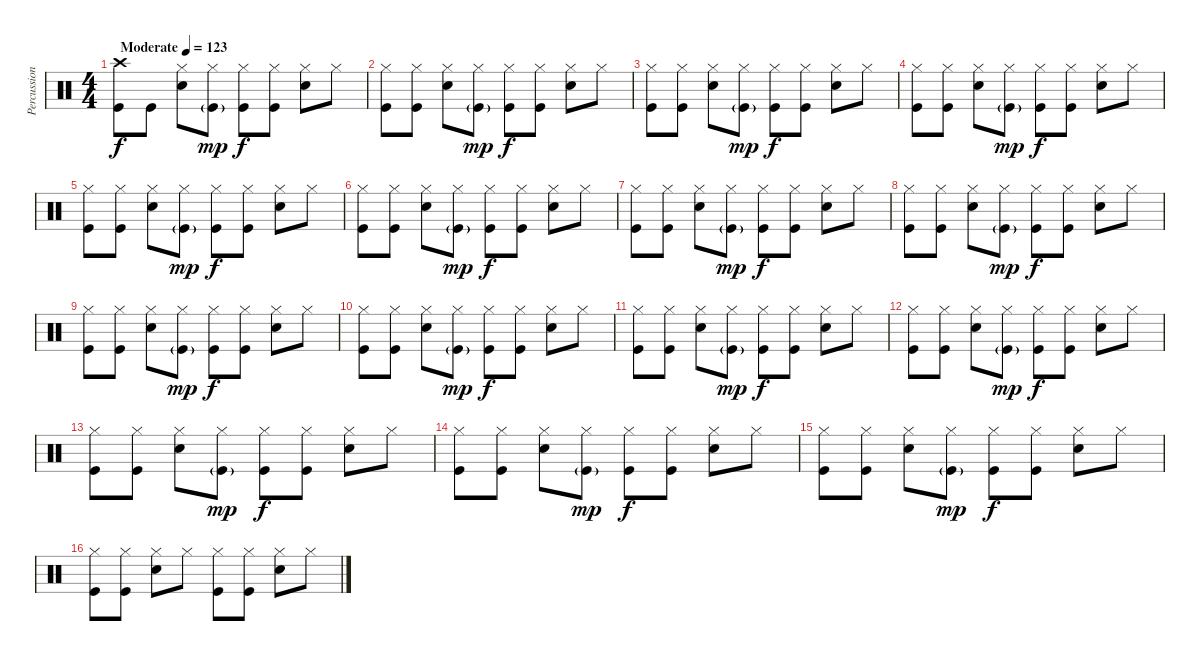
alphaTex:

\track ("Percussion" "Percussion") {instrument percussion}
\staff {score}
\articulation defaults
\ts (4 4)
\tempo (123 "Moderate")
\clef neutral
\ks c
("Crash high (hit)" "Kick (hit)").8{dy f} "Kick (hit)".8 ("Hi-Hat (closed)" "Snare (hit) 2").8 ("Hi-Hat (closed)" "Kick (hit)"{g}).8{dy mp} ("Hi-Hat (closed)" "Kick (hit)").8{dy f} ("Hi-Hat (closed)" "Kick (hit)").8 ("Hi-Hat (closed)" "Snare (hit) 2").8 "Hi-Hat (closed)".8 |
("Hi-Hat (closed)" "Kick (hit)").8 ("Hi-Hat (closed)" "Kick (hit)").8 ("Hi-Hat (closed)" "Snare (hit) 2").8 ("Hi-Hat (closed)" "Kick (hit)"{g}).8{dy mp} ("Hi-Hat (closed)" "Kick (hit)").8{dy f} ("Hi-Hat (closed)" "Kick (hit)").8 ("Hi-Hat (closed)" "Snare (hit) 2").8 "Hi-Hat (closed)".8 |
("Hi-Hat (closed)" "Kick (hit)").8 ("Hi-Hat (closed)" "Kick (hit)").8 ("Hi-Hat (closed)" "Snare (hit) 2").8 ("Hi-Hat (closed)" "Kick (hit)"{g}).8{dy mp} ("Hi-Hat (closed)" "Kick (hit)").8{dy f} ("Hi-Hat (closed)" "Kick (hit)").8 ("Hi-Hat (closed)" "Snare (hit) 2").8 "Hi-Hat (closed)".8 |
("Hi-Hat (closed)" "Kick (hit)").8 ("Hi-Hat (closed)" "Kick (hit)").8 ("Hi-Hat (closed)" "Snare (hit) 2").8 ("Hi-Hat (closed)" "Kick (hit)"{g}).8{dy mp} ("Hi-Hat (closed)" "Kick (hit)").8{dy f} ("Hi-Hat (closed)" "Kick (hit)").8 ("Hi-Hat (closed)" "Snare (hit) 2").8 "Hi-Hat (closed)".8 |
("Hi-Hat (closed)" "Kick (hit)").8 ("Hi-Hat (closed)" "Kick (hit)").8 ("Hi-Hat (closed)" "Snare (hit) 2").8 ("Hi-Hat (closed)" "Kick (hit)"{g}).8{dy mp} ("Hi-Hat (closed)" "Kick (hit)").8{dy f} ("Hi-Hat (closed)" "Kick (hit)").8 ("Hi-Hat (closed)" "Snare (hit) 2").8 "Hi-Hat (closed)".8 |
("Hi-Hat (closed)" "Kick (hit)").8 ("Hi-Hat (closed)" "Kick (hit)").8 ("Hi-Hat (closed)" "Snare (hit) 2").8 ("Hi-Hat (closed)" "Kick (hit)"{g}).8{dy mp} ("Hi-Hat (closed)" "Kick (hit)").8{dy f} ("Hi-Hat (closed)" "Kick (hit)").8 ("Hi-Hat (closed)" "Snare (hit) 2").8 "Hi-Hat (closed)".8 |
("Hi-Hat (closed)" "Kick (hit)").8 ("Hi-Hat (closed)" "Kick (hit)").8 ("Hi-Hat (closed)" "Snare (hit) 2").8 ("Hi-Hat (closed)" "Kick (hit)"{g}).8{dy mp} ("Hi-Hat (closed)" "Kick (hit)").8{dy f} ("Hi-Hat (closed)" "Kick (hit)").8 ("Hi-Hat (closed)" "Snare (hit) 2").8 "Hi-Hat (closed)".8 |
("Hi-Hat (closed)" "Kick (hit)").8 ("Hi-Hat (closed)" "Kick (hit)").8 ("Hi-Hat (closed)" "Snare (hit) 2").8 ("Hi-Hat (closed)" "Kick (hit)"{g}).8{dy mp} ("Hi-Hat (closed)" "Kick (hit)").8{dy f} ("Hi-Hat (closed)" "Kick (hit)").8 ("Hi-Hat (closed)" "Snare (hit) 2").8 "Hi-Hat (closed)".8 |
("Hi-Hat (closed)" "Kick (hit)").8 ("Hi-Hat (closed)" "Kick (hit)").8 ("Hi-Hat (closed)" "Snare (hit) 2").8 ("Hi-Hat (closed)" "Kick (hit)"{g}).8{dy mp} ("Hi-Hat (closed)" "Kick (hit)").8{dy f} ("Hi-Hat (closed)" "Kick (hit)").8 ("Hi-Hat (closed)" "Snare (hit) 2").8 "Hi-Hat (closed)".8 |
("Hi-Hat (closed)" "Kick (hit)").8 ("Hi-Hat (closed)" "Kick (hit)").8 ("Hi-Hat (closed)" "Snare (hit) 2").8 ("Hi-Hat (closed)" "Kick (hit)"{g}).8{dy mp} ("Hi-Hat (closed)" "Kick (hit)").8{dy f} ("Hi-Hat (closed)" "Kick (hit)").8 ("Hi-Hat (closed)" "Snare (hit) 2").8 "Hi-Hat (closed)".8 |
("Hi-Hat (closed)" "Kick (hit)").8 ("Hi-Hat (closed)" "Kick (hit)").8 ("Hi-Hat (closed)" "Snare (hit) 2").8 ("Hi-Hat (closed)" "Kick (hit)"{g}).8{dy mp} ("Hi-Hat (closed)" "Kick (hit)").8{dy f} ("Hi-Hat (closed)" "Kick (hit)").8 ("Hi-Hat (closed)" "Snare (hit) 2").8 "Hi-Hat (closed)".8 |
("Hi-Hat (closed)" "Kick (hit)").8 ("Hi-Hat (closed)" "Kick (hit)").8 ("Hi-Hat (closed)" "Snare (hit) 2").8 ("Hi-Hat (closed)" "Kick (hit)"{g}).8{dy mp} ("Hi-Hat (closed)" "Kick (hit)").8{dy f} ("Hi-Hat (closed)" "Kick (hit)").8 ("Hi-Hat (closed)" "Snare (hit) 2").8 "Hi-Hat (closed)".8 |
("Hi-Hat (closed)" "Kick (hit)").8 ("Hi-Hat (closed)" "Kick (hit)").8 ("Hi-Hat (closed)" "Snare (hit) 2").8 ("Hi-Hat (closed)" "Kick (hit)"{g}).8{dy mp} ("Hi-Hat (closed)" "Kick (hit)").8{dy f} ("Hi-Hat (closed)" "Kick (hit)").8 ("Hi-Hat (closed)" "Snare (hit) 2").8 "Hi-Hat (closed)".8 |
("Hi-Hat (closed)" "Kick (hit)").8 ("Hi-Hat (closed)" "Kick (hit)").8 ("Hi-Hat (closed)" "Snare (hit) 2").8 ("Hi-Hat (closed)" "Kick (hit)"{g}).8{dy mp} ("Hi-Hat (closed)" "Kick (hit)").8{dy f} ("Hi-Hat (closed)" "Kick (hit)").8 ("Hi-Hat (closed)" "Snare (hit) 2").8 "Hi-Hat (closed)".8 |
("Hi-Hat (closed)" "Kick (hit)").8 ("Hi-Hat (closed)" "Kick (hit)").8 ("Hi-Hat (closed)" "Snare (hit) 2").8 ("Hi-Hat (closed)" "Kick (hit)"{g}).8{dy mp} ("Hi-Hat (closed)" "Kick (hit)").8{dy f} ("Hi-Hat (closed)" "Kick (hit)").8 ("Hi-Hat (closed)" "Snare (hit) 2").8 "Hi-Hat (closed)".8 |
("Hi-Hat (closed)" "Kick (hit)").8 ("Hi-Hat (closed)" "Kick (hit)").8 ("Hi-Hat (closed)" "Snare (hit) 2").8 "Hi-Hat (closed)".8 ("Hi-Hat (closed)" "Kick (hit)").8 ("Hi-Hat (closed)" "Kick (hit)").8 ("Hi-Hat (closed)" "Snare (hit) 2").8 "Hi-Hat (closed)".8
